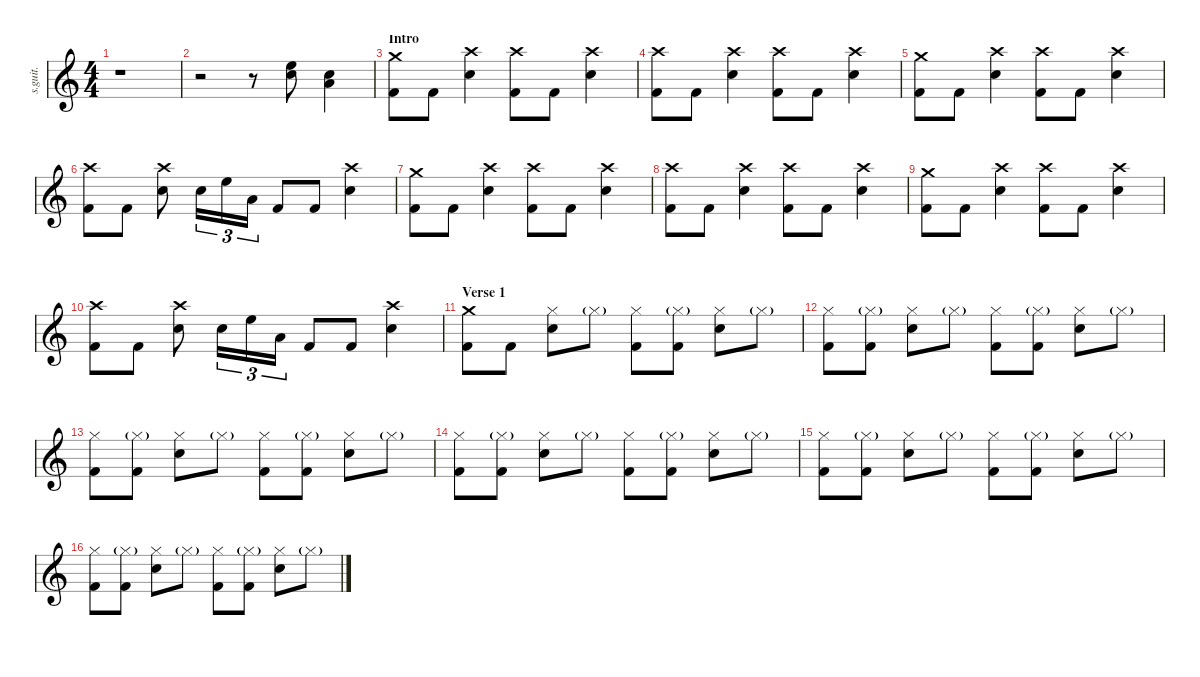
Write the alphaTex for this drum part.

\defaultSystemsLayout 4
\hideDynamics
\bracketExtendMode nobrackets
\track ("Travis" "s.guit.") {instrument percussion}
\staff {score}
\articulation defaults
\ts (4 4)
\beaming (8 2 2 2 2)
\tempo (149 hide)
\clef g2
\ks c
r.1{dy f} |
r.2 r.8 ("High Floor Tom (hit)" "Snare (hit) 2").8{lyrics (0 "") lyrics (1 "") lyrics (2 "") lyrics (3 "") lyrics (4 "")} ("Snare (hit) 2" "Low Tom (hit)").4{lyrics (0 "") lyrics (1 "") lyrics (2 "") lyrics (3 "") lyrics (4 "")} |
\section ("" "Intro")
("Crash medium (hit)" "Kick (hit) 2").8{lyrics (0 "") lyrics (1 "") lyrics (2 "") lyrics (3 "") lyrics (4 "")} "Kick (hit) 2".8{lyrics (0 "") lyrics (1 "") lyrics (2 "") lyrics (3 "") lyrics (4 "")} ("Crash high (hit)" "Snare (hit) 2").4{lyrics (0 "") lyrics (1 "") lyrics (2 "") lyrics (3 "") lyrics (4 "")} ("Crash high (hit)" "Kick (hit) 2").8{lyrics (0 "") lyrics (1 "") lyrics (2 "") lyrics (3 "") lyrics (4 "")} "Kick (hit) 2".8{lyrics (0 "") lyrics (1 "") lyrics (2 "") lyrics (3 "") lyrics (4 "")} ("Crash high (hit)" "Snare (hit) 2").4{lyrics (0 "") lyrics (1 "") lyrics (2 "") lyrics (3 "") lyrics (4 "")} |
("Crash high (hit)" "Kick (hit) 2").8{lyrics (0 "") lyrics (1 "") lyrics (2 "") lyrics (3 "") lyrics (4 "")} "Kick (hit) 2".8{lyrics (0 "") lyrics (1 "") lyrics (2 "") lyrics (3 "") lyrics (4 "")} ("Crash high (hit)" "Snare (hit) 2").4{lyrics (0 "") lyrics (1 "") lyrics (2 "") lyrics (3 "") lyrics (4 "")} ("Crash high (hit)" "Kick (hit) 2").8{lyrics (0 "") lyrics (1 "") lyrics (2 "") lyrics (3 "") lyrics (4 "")} "Kick (hit) 2".8{lyrics (0 "") lyrics (1 "") lyrics (2 "") lyrics (3 "") lyrics (4 "")} ("Crash high (hit)" "Snare (hit) 2").4{lyrics (0 "") lyrics (1 "") lyrics (2 "") lyrics (3 "") lyrics (4 "")} |
("Crash medium (hit)" "Kick (hit) 2").8{lyrics (0 "") lyrics (1 "") lyrics (2 "") lyrics (3 "") lyrics (4 "")} "Kick (hit) 2".8{lyrics (0 "") lyrics (1 "") lyrics (2 "") lyrics (3 "") lyrics (4 "")} ("Crash high (hit)" "Snare (hit) 2").4{lyrics (0 "") lyrics (1 "") lyrics (2 "") lyrics (3 "") lyrics (4 "")} ("Crash high (hit)" "Kick (hit) 2").8{lyrics (0 "") lyrics (1 "") lyrics (2 "") lyrics (3 "") lyrics (4 "")} "Kick (hit) 2".8{lyrics (0 "") lyrics (1 "") lyrics (2 "") lyrics (3 "") lyrics (4 "")} ("Crash high (hit)" "Snare (hit) 2").4{lyrics (0 "") lyrics (1 "") lyrics (2 "") lyrics (3 "") lyrics (4 "")} |
("Crash high (hit)" "Kick (hit) 2").8{lyrics (0 "") lyrics (1 "") lyrics (2 "") lyrics (3 "") lyrics (4 "")} "Kick (hit) 2".8{lyrics (0 "") lyrics (1 "") lyrics (2 "") lyrics (3 "") lyrics (4 "")} ("Crash high (hit)" "Snare (hit) 2").8{lyrics (0 "") lyrics (1 "") lyrics (2 "") lyrics (3 "") lyrics (4 "")} "Snare (hit) 2".16{tu (3 2) lyrics (0 "") lyrics (1 "") lyrics (2 "") lyrics (3 "") lyrics (4 "")} "High Floor Tom (hit)".16{tu (3 2) lyrics (0 "") lyrics (1 "") lyrics (2 "") lyrics (3 "") lyrics (4 "")} "Low Tom (hit)".16{tu (3 2) lyrics (0 "") lyrics (1 "") lyrics (2 "") lyrics (3 "") lyrics (4 "")} "Kick (hit) 2".8{lyrics (0 "") lyrics (1 "") lyrics (2 "") lyrics (3 "") lyrics (4 "")} "Kick (hit) 2".8{lyrics (0 "") lyrics (1 "") lyrics (2 "") lyrics (3 "") lyrics (4 "")} ("Crash high (hit)" "Snare (hit) 2").4{lyrics (0 "") lyrics (1 "") lyrics (2 "") lyrics (3 "") lyrics (4 "")} |
("Crash medium (hit)" "Kick (hit) 2").8{lyrics (0 "") lyrics (1 "") lyrics (2 "") lyrics (3 "") lyrics (4 "")} "Kick (hit) 2".8{lyrics (0 "") lyrics (1 "") lyrics (2 "") lyrics (3 "") lyrics (4 "")} ("Crash high (hit)" "Snare (hit) 2").4{lyrics (0 "") lyrics (1 "") lyrics (2 "") lyrics (3 "") lyrics (4 "")} ("Crash high (hit)" "Kick (hit) 2").8{lyrics (0 "") lyrics (1 "") lyrics (2 "") lyrics (3 "") lyrics (4 "")} "Kick (hit) 2".8{lyrics (0 "") lyrics (1 "") lyrics (2 "") lyrics (3 "") lyrics (4 "")} ("Crash high (hit)" "Snare (hit) 2").4{lyrics (0 "") lyrics (1 "") lyrics (2 "") lyrics (3 "") lyrics (4 "")} |
("Crash high (hit)" "Kick (hit) 2").8{lyrics (0 "") lyrics (1 "") lyrics (2 "") lyrics (3 "") lyrics (4 "")} "Kick (hit) 2".8{lyrics (0 "") lyrics (1 "") lyrics (2 "") lyrics (3 "") lyrics (4 "")} ("Crash high (hit)" "Snare (hit) 2").4{lyrics (0 "") lyrics (1 "") lyrics (2 "") lyrics (3 "") lyrics (4 "")} ("Crash high (hit)" "Kick (hit) 2").8{lyrics (0 "") lyrics (1 "") lyrics (2 "") lyrics (3 "") lyrics (4 "")} "Kick (hit) 2".8{lyrics (0 "") lyrics (1 "") lyrics (2 "") lyrics (3 "") lyrics (4 "")} ("Crash high (hit)" "Snare (hit) 2").4{lyrics (0 "") lyrics (1 "") lyrics (2 "") lyrics (3 "") lyrics (4 "")} |
("Crash medium (hit)" "Kick (hit) 2").8{lyrics (0 "") lyrics (1 "") lyrics (2 "") lyrics (3 "") lyrics (4 "")} "Kick (hit) 2".8{lyrics (0 "") lyrics (1 "") lyrics (2 "") lyrics (3 "") lyrics (4 "")} ("Crash high (hit)" "Snare (hit) 2").4{lyrics (0 "") lyrics (1 "") lyrics (2 "") lyrics (3 "") lyrics (4 "")} ("Crash high (hit)" "Kick (hit) 2").8{lyrics (0 "") lyrics (1 "") lyrics (2 "") lyrics (3 "") lyrics (4 "")} "Kick (hit) 2".8{lyrics (0 "") lyrics (1 "") lyrics (2 "") lyrics (3 "") lyrics (4 "")} ("Crash high (hit)" "Snare (hit) 2").4{lyrics (0 "") lyrics (1 "") lyrics (2 "") lyrics (3 "") lyrics (4 "")} |
("Crash high (hit)" "Kick (hit) 2").8{lyrics (0 "") lyrics (1 "") lyrics (2 "") lyrics (3 "") lyrics (4 "")} "Kick (hit) 2".8{lyrics (0 "") lyrics (1 "") lyrics (2 "") lyrics (3 "") lyrics (4 "")} ("Crash high (hit)" "Snare (hit) 2").8{lyrics (0 "") lyrics (1 "") lyrics (2 "") lyrics (3 "") lyrics (4 "")} "Snare (hit) 2".16{tu (3 2) lyrics (0 "") lyrics (1 "") lyrics (2 "") lyrics (3 "") lyrics (4 "")} "High Floor Tom (hit)".16{tu (3 2) lyrics (0 "") lyrics (1 "") lyrics (2 "") lyrics (3 "") lyrics (4 "")} "Low Tom (hit)".16{tu (3 2) lyrics (0 "") lyrics (1 "") lyrics (2 "") lyrics (3 "") lyrics (4 "")} "Kick (hit) 2".8{lyrics (0 "") lyrics (1 "") lyrics (2 "") lyrics (3 "") lyrics (4 "")} "Kick (hit) 2".8{lyrics (0 "") lyrics (1 "") lyrics (2 "") lyrics (3 "") lyrics (4 "")} ("Crash high (hit)" "Snare (hit) 2").4{lyrics (0 "") lyrics (1 "") lyrics (2 "") lyrics (3 "") lyrics (4 "")} |
\section ("" "Verse 1")
("Crash medium (hit)" "Kick (hit) 2").8{lyrics (0 "") lyrics (1 "") lyrics (2 "") lyrics (3 "") lyrics (4 "")} "Kick (hit) 2".8{lyrics (0 "") lyrics (1 "") lyrics (2 "") lyrics (3 "") lyrics (4 "")} ("Hi-Hat (closed)" "Snare (hit) 2").8{lyrics (0 "") lyrics (1 "") lyrics (2 "") lyrics (3 "") lyrics (4 "")} "Hi-Hat (closed)"{g}.8{lyrics (0 "") lyrics (1 "") lyrics (2 "") lyrics (3 "") lyrics (4 "") dy mp} ("Hi-Hat (closed)" "Kick (hit) 2").8{lyrics (0 "") lyrics (1 "") lyrics (2 "") lyrics (3 "") lyrics (4 "") dy f} ("Hi-Hat (closed)"{g} "Kick (hit) 2").8{lyrics (0 "") lyrics (1 "") lyrics (2 "") lyrics (3 "") lyrics (4 "")} ("Hi-Hat (closed)" "Snare (hit) 2").8{lyrics (0 "") lyrics (1 "") lyrics (2 "") lyrics (3 "") lyrics (4 "")} "Hi-Hat (closed)"{g}.8{lyrics (0 "") lyrics (1 "") lyrics (2 "") lyrics (3 "") lyrics (4 "") dy mp} |
("Hi-Hat (closed)" "Kick (hit) 2").8{lyrics (0 "") lyrics (1 "") lyrics (2 "") lyrics (3 "") lyrics (4 "") dy f} ("Hi-Hat (closed)"{g} "Kick (hit) 2").8{lyrics (0 "") lyrics (1 "") lyrics (2 "") lyrics (3 "") lyrics (4 "")} ("Hi-Hat (closed)" "Snare (hit) 2").8{lyrics (0 "") lyrics (1 "") lyrics (2 "") lyrics (3 "") lyrics (4 "")} "Hi-Hat (closed)"{g}.8{lyrics (0 "") lyrics (1 "") lyrics (2 "") lyrics (3 "") lyrics (4 "") dy mp} ("Hi-Hat (closed)" "Kick (hit) 2").8{lyrics (0 "") lyrics (1 "") lyrics (2 "") lyrics (3 "") lyrics (4 "") dy f} ("Hi-Hat (closed)"{g} "Kick (hit) 2").8{lyrics (0 "") lyrics (1 "") lyrics (2 "") lyrics (3 "") lyrics (4 "")} ("Hi-Hat (closed)" "Snare (hit) 2").8{lyrics (0 "") lyrics (1 "") lyrics (2 "") lyrics (3 "") lyrics (4 "")} "Hi-Hat (closed)"{g}.8{lyrics (0 "") lyrics (1 "") lyrics (2 "") lyrics (3 "") lyrics (4 "") dy mp} |
("Hi-Hat (closed)" "Kick (hit) 2").8{lyrics (0 "") lyrics (1 "") lyrics (2 "") lyrics (3 "") lyrics (4 "") dy f} ("Hi-Hat (closed)"{g} "Kick (hit) 2").8{lyrics (0 "") lyrics (1 "") lyrics (2 "") lyrics (3 "") lyrics (4 "")} ("Hi-Hat (closed)" "Snare (hit) 2").8{lyrics (0 "") lyrics (1 "") lyrics (2 "") lyrics (3 "") lyrics (4 "")} "Hi-Hat (closed)"{g}.8{lyrics (0 "") lyrics (1 "") lyrics (2 "") lyrics (3 "") lyrics (4 "") dy mp} ("Hi-Hat (closed)" "Kick (hit) 2").8{lyrics (0 "") lyrics (1 "") lyrics (2 "") lyrics (3 "") lyrics (4 "") dy f} ("Hi-Hat (closed)"{g} "Kick (hit) 2").8{lyrics (0 "") lyrics (1 "") lyrics (2 "") lyrics (3 "") lyrics (4 "")} ("Hi-Hat (closed)" "Snare (hit) 2").8{lyrics (0 "") lyrics (1 "") lyrics (2 "") lyrics (3 "") lyrics (4 "")} "Hi-Hat (closed)"{g}.8{lyrics (0 "") lyrics (1 "") lyrics (2 "") lyrics (3 "") lyrics (4 "") dy mp} |
("Hi-Hat (closed)" "Kick (hit) 2").8{lyrics (0 "") lyrics (1 "") lyrics (2 "") lyrics (3 "") lyrics (4 "") dy f} ("Hi-Hat (closed)"{g} "Kick (hit) 2").8{lyrics (0 "") lyrics (1 "") lyrics (2 "") lyrics (3 "") lyrics (4 "")} ("Hi-Hat (closed)" "Snare (hit) 2").8{lyrics (0 "") lyrics (1 "") lyrics (2 "") lyrics (3 "") lyrics (4 "")} "Hi-Hat (closed)"{g}.8{lyrics (0 "") lyrics (1 "") lyrics (2 "") lyrics (3 "") lyrics (4 "") dy mp} ("Hi-Hat (closed)" "Kick (hit) 2").8{lyrics (0 "") lyrics (1 "") lyrics (2 "") lyrics (3 "") lyrics (4 "") dy f} ("Hi-Hat (closed)"{g} "Kick (hit) 2").8{lyrics (0 "") lyrics (1 "") lyrics (2 "") lyrics (3 "") lyrics (4 "")} ("Hi-Hat (closed)" "Snare (hit) 2").8{lyrics (0 "") lyrics (1 "") lyrics (2 "") lyrics (3 "") lyrics (4 "")} "Hi-Hat (closed)"{g}.8{lyrics (0 "") lyrics (1 "") lyrics (2 "") lyrics (3 "") lyrics (4 "") dy mp} |
("Hi-Hat (closed)" "Kick (hit) 2").8{lyrics (0 "") lyrics (1 "") lyrics (2 "") lyrics (3 "") lyrics (4 "") dy f} ("Hi-Hat (closed)"{g} "Kick (hit) 2").8{lyrics (0 "") lyrics (1 "") lyrics (2 "") lyrics (3 "") lyrics (4 "")} ("Hi-Hat (closed)" "Snare (hit) 2").8{lyrics (0 "") lyrics (1 "") lyrics (2 "") lyrics (3 "") lyrics (4 "")} "Hi-Hat (closed)"{g}.8{lyrics (0 "") lyrics (1 "") lyrics (2 "") lyrics (3 "") lyrics (4 "") dy mp} ("Hi-Hat (closed)" "Kick (hit) 2").8{lyrics (0 "") lyrics (1 "") lyrics (2 "") lyrics (3 "") lyrics (4 "") dy f} ("Hi-Hat (closed)"{g} "Kick (hit) 2").8{lyrics (0 "") lyrics (1 "") lyrics (2 "") lyrics (3 "") lyrics (4 "")} ("Hi-Hat (closed)" "Snare (hit) 2").8{lyrics (0 "") lyrics (1 "") lyrics (2 "") lyrics (3 "") lyrics (4 "")} "Hi-Hat (closed)"{g}.8{lyrics (0 "") lyrics (1 "") lyrics (2 "") lyrics (3 "") lyrics (4 "") dy mp} |
("Hi-Hat (closed)" "Kick (hit) 2").8{lyrics (0 "") lyrics (1 "") lyrics (2 "") lyrics (3 "") lyrics (4 "") dy f} ("Hi-Hat (closed)"{g} "Kick (hit) 2").8{lyrics (0 "") lyrics (1 "") lyrics (2 "") lyrics (3 "") lyrics (4 "")} ("Hi-Hat (closed)" "Snare (hit) 2").8{lyrics (0 "") lyrics (1 "") lyrics (2 "") lyrics (3 "") lyrics (4 "")} "Hi-Hat (closed)"{g}.8{lyrics (0 "") lyrics (1 "") lyrics (2 "") lyrics (3 "") lyrics (4 "") dy mp} ("Hi-Hat (closed)" "Kick (hit) 2").8{lyrics (0 "") lyrics (1 "") lyrics (2 "") lyrics (3 "") lyrics (4 "") dy f} ("Hi-Hat (closed)"{g} "Kick (hit) 2").8{lyrics (0 "") lyrics (1 "") lyrics (2 "") lyrics (3 "") lyrics (4 "")} ("Hi-Hat (closed)" "Snare (hit) 2").8{lyrics (0 "") lyrics (1 "") lyrics (2 "") lyrics (3 "") lyrics (4 "")} "Hi-Hat (closed)"{g}.8{lyrics (0 "") lyrics (1 "") lyrics (2 "") lyrics (3 "") lyrics (4 "") dy mp}
